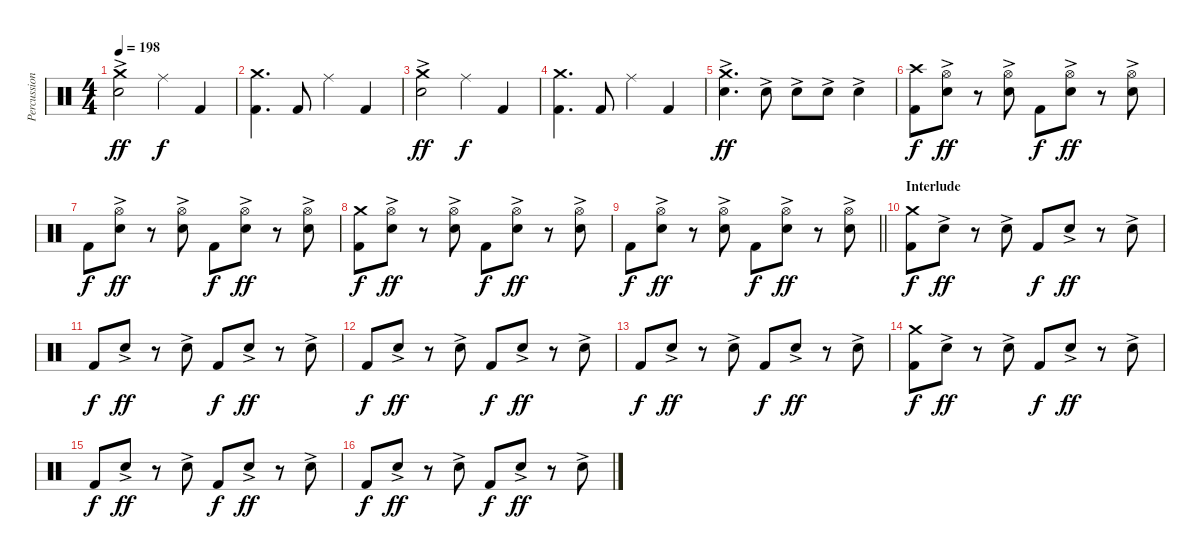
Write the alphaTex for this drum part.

\track ("Percussion" "Percussion") {instrument percussion}
\staff {score}
\articulation defaults
\ts (4 4)
\tempo 198
\clef neutral
\ks c
("Crash medium (hit)" "Electric Snare (hit)"{ac}).2{dy ff} "Ride (middle)".4{dy f} "Kick (hit) 2".4 |
("Crash medium (hit)" "Kick (hit) 2").4{d} "Kick (hit) 2".8 "Ride (middle)".4 "Kick (hit) 2".4 |
("Crash medium (hit)" "Electric Snare (hit)"{ac}).2{dy ff} "Ride (middle)".4{dy f} "Kick (hit) 2".4 |
("Crash medium (hit)" "Kick (hit) 2").4{d} "Kick (hit) 2".8 "Ride (middle)".4 "Kick (hit) 2".4 |
("Crash medium (hit)" "Electric Snare (hit)"{ac}).4{d dy ff} "Electric Snare (hit)"{ac}.8 "Electric Snare (hit)"{ac}.8 "Electric Snare (hit)"{ac}.8 "Electric Snare (hit)"{ac}.4 |
("Crash high (hit)" "Kick (hit) 2").8{dy f} ("Hi-Hat (open)" "Electric Snare (hit)"{ac}).8{dy ff} r.8 ("Hi-Hat (open)" "Electric Snare (hit)"{ac}).8 "Kick (hit) 2".8{dy f} ("Hi-Hat (open)" "Electric Snare (hit)"{ac}).8{dy ff} r.8 ("Hi-Hat (open)" "Electric Snare (hit)"{ac}).8 |
"Kick (hit) 2".8{dy f} ("Hi-Hat (open)" "Electric Snare (hit)"{ac}).8{dy ff} r.8 ("Hi-Hat (open)" "Electric Snare (hit)"{ac}).8 "Kick (hit) 2".8{dy f} ("Hi-Hat (open)" "Electric Snare (hit)"{ac}).8{dy ff} r.8 ("Hi-Hat (open)" "Electric Snare (hit)"{ac}).8 |
("Crash medium (hit)" "Kick (hit) 2").8{dy f} ("Hi-Hat (open)" "Electric Snare (hit)"{ac}).8{dy ff} r.8 ("Hi-Hat (open)" "Electric Snare (hit)"{ac}).8 "Kick (hit) 2".8{dy f} ("Hi-Hat (open)" "Electric Snare (hit)"{ac}).8{dy ff} r.8 ("Hi-Hat (open)" "Electric Snare (hit)"{ac}).8 |
\barLineRight lightlight "Kick (hit) 2".8{dy f}
("Hi-Hat (open)" "Electric Snare (hit)"{ac}).8{dy ff} r.8 ("Hi-Hat (open)" "Electric Snare (hit)"{ac}).8 "Kick (hit) 2".8{dy f} ("Hi-Hat (open)" "Electric Snare (hit)"{ac}).8{dy ff} r.8 ("Hi-Hat (open)" "Electric Snare (hit)"{ac}).8 |
\section ("" "Interlude")
("Crash medium (hit)" "Kick (hit) 2").8{dy f} "Electric Snare (hit)"{ac}.8{dy ff} r.8 "Electric Snare (hit)"{ac}.8 "Kick (hit) 2".8{dy f} "Electric Snare (hit)"{ac}.8{dy ff} r.8 "Electric Snare (hit)"{ac}.8 |
"Kick (hit) 2".8{dy f} "Electric Snare (hit)"{ac}.8{dy ff} r.8 "Electric Snare (hit)"{ac}.8 "Kick (hit) 2".8{dy f} "Electric Snare (hit)"{ac}.8{dy ff} r.8 "Electric Snare (hit)"{ac}.8 |
"Kick (hit) 2".8{dy f} "Electric Snare (hit)"{ac}.8{dy ff} r.8 "Electric Snare (hit)"{ac}.8 "Kick (hit) 2".8{dy f} "Electric Snare (hit)"{ac}.8{dy ff} r.8 "Electric Snare (hit)"{ac}.8 |
"Kick (hit) 2".8{dy f} "Electric Snare (hit)"{ac}.8{dy ff} r.8 "Electric Snare (hit)"{ac}.8 "Kick (hit) 2".8{dy f} "Electric Snare (hit)"{ac}.8{dy ff} r.8 "Electric Snare (hit)"{ac}.8 |
("Crash medium (hit)" "Kick (hit) 2").8{dy f} "Electric Snare (hit)"{ac}.8{dy ff} r.8 "Electric Snare (hit)"{ac}.8 "Kick (hit) 2".8{dy f} "Electric Snare (hit)"{ac}.8{dy ff} r.8 "Electric Snare (hit)"{ac}.8 |
"Kick (hit) 2".8{dy f} "Electric Snare (hit)"{ac}.8{dy ff} r.8 "Electric Snare (hit)"{ac}.8 "Kick (hit) 2".8{dy f} "Electric Snare (hit)"{ac}.8{dy ff} r.8 "Electric Snare (hit)"{ac}.8 |
"Kick (hit) 2".8{dy f} "Electric Snare (hit)"{ac}.8{dy ff} r.8 "Electric Snare (hit)"{ac}.8 "Kick (hit) 2".8{dy f} "Electric Snare (hit)"{ac}.8{dy ff} r.8 "Electric Snare (hit)"{ac}.8
